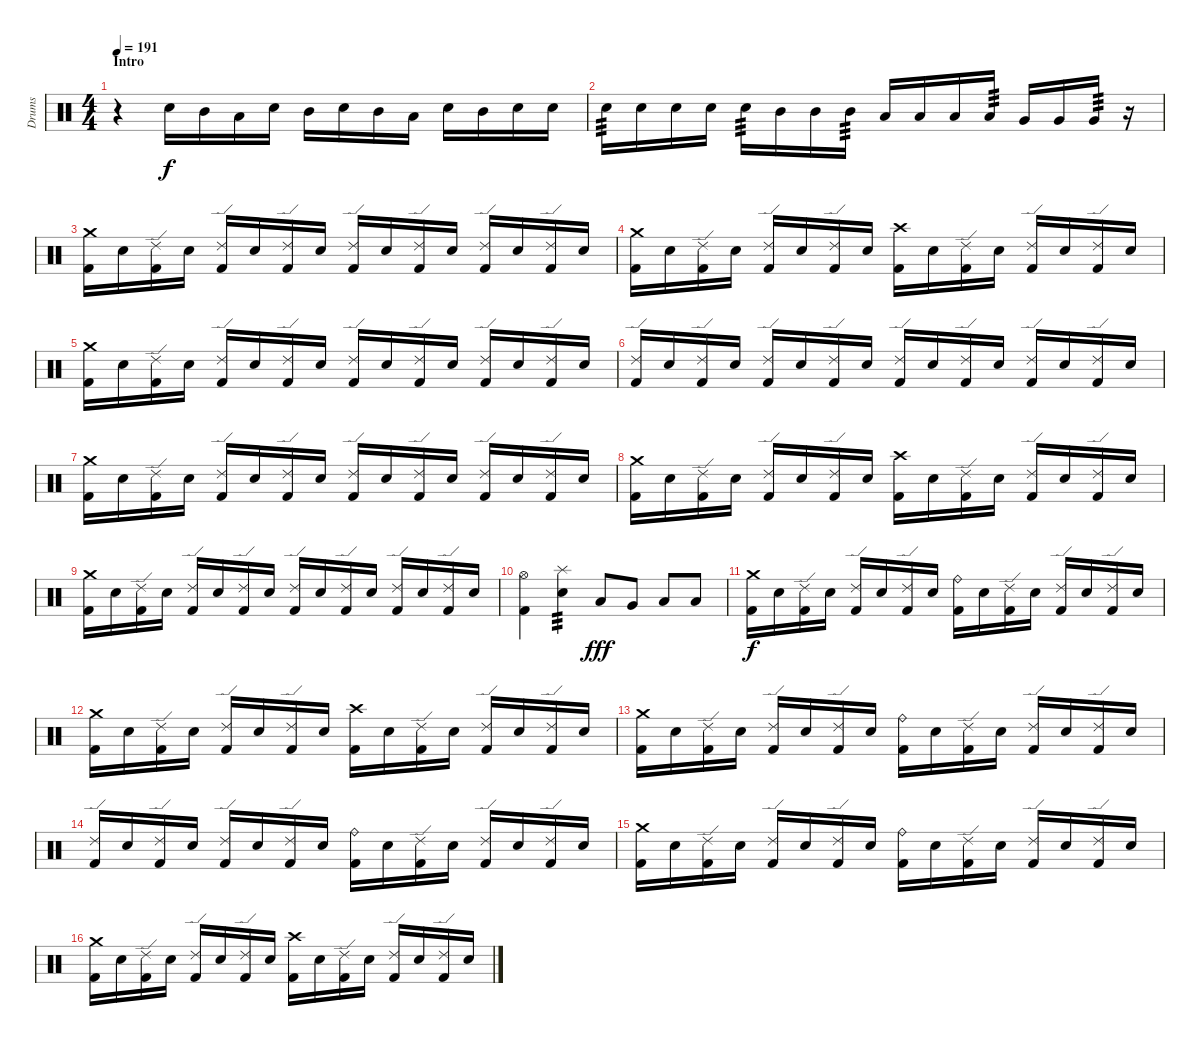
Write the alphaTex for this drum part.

\track ("Drums" "Drums") {instrument percussion}
\staff {score}
\articulation defaults
\ts (4 4)
\section ("" "Intro")
\tempo 191
\clef neutral
\ks c
r.4{dy f} "Electric Snare (hit)".16 "Mid Tom (hit)".16 "Low Tom (hit)".16 "Electric Snare (hit)".16 "Mid Tom (hit)".16 "Electric Snare (hit)".16 "Mid Tom (hit)".16 "Low Tom (hit)".16 "Electric Snare (hit)".16 "Mid Tom (hit)".16 "Electric Snare (hit)".16 "Electric Snare (hit)".16 |
"Electric Snare (hit)".16{tp 3} "Electric Snare (hit)".16 "Electric Snare (hit)".16 "Electric Snare (hit)".16 "Electric Snare (hit)".16{tp 3} "Mid Tom (hit)".16 "Mid Tom (hit)".16 "Mid Tom (hit)".16{tp 3} "Low Tom (hit)".16 "Low Tom (hit)".16 "Low Tom (hit)".16 "Low Tom (hit)".16{tp 3} "Very Low Tom (hit)".16 "Very Low Tom (hit)".16 "Very Low Tom (hit)".16{tp 3} r.16 |
("Crash medium (hit)" "Kick (hit) 2").16 "Electric Snare (hit)".16 ("Ride (edge) 2" "Kick (hit) 2").16 "Electric Snare (hit)".16 ("Ride (edge) 2" "Kick (hit) 2").16 "Electric Snare (hit)".16 ("Ride (edge) 2" "Kick (hit) 2").16 "Electric Snare (hit)".16 ("Ride (edge) 2" "Kick (hit) 2").16 "Electric Snare (hit)".16 ("Ride (edge) 2" "Kick (hit) 2").16 "Electric Snare (hit)".16 ("Ride (edge) 2" "Kick (hit) 2").16 "Electric Snare (hit)".16 ("Ride (edge) 2" "Kick (hit) 2").16 "Electric Snare (hit)".16 |
("Crash medium (hit)" "Kick (hit) 2").16 "Electric Snare (hit)".16 ("Ride (edge) 2" "Kick (hit) 2").16 "Electric Snare (hit)".16 ("Ride (edge) 2" "Kick (hit) 2").16 "Electric Snare (hit)".16 ("Ride (edge) 2" "Kick (hit) 2").16 "Electric Snare (hit)".16 ("Crash high (hit)" "Kick (hit) 2").16 "Electric Snare (hit)".16 ("Ride (edge) 2" "Kick (hit) 2").16 "Electric Snare (hit)".16 ("Ride (edge) 2" "Kick (hit) 2").16 "Electric Snare (hit)".16 ("Ride (edge) 2" "Kick (hit) 2").16 "Electric Snare (hit)".16 |
("Crash medium (hit)" "Kick (hit) 2").16 "Electric Snare (hit)".16 ("Ride (edge) 2" "Kick (hit) 2").16 "Electric Snare (hit)".16 ("Ride (edge) 2" "Kick (hit) 2").16 "Electric Snare (hit)".16 ("Ride (edge) 2" "Kick (hit) 2").16 "Electric Snare (hit)".16 ("Ride (edge) 2" "Kick (hit) 2").16 "Electric Snare (hit)".16 ("Ride (edge) 2" "Kick (hit) 2").16 "Electric Snare (hit)".16 ("Ride (edge) 2" "Kick (hit) 2").16 "Electric Snare (hit)".16 ("Ride (edge) 2" "Kick (hit) 2").16 "Electric Snare (hit)".16 |
("Ride (edge) 2" "Kick (hit) 2").16 "Electric Snare (hit)".16 ("Ride (edge) 2" "Kick (hit) 2").16 "Electric Snare (hit)".16 ("Ride (edge) 2" "Kick (hit) 2").16 "Electric Snare (hit)".16 ("Ride (edge) 2" "Kick (hit) 2").16 "Electric Snare (hit)".16 ("Ride (edge) 2" "Kick (hit) 2").16 "Electric Snare (hit)".16 ("Ride (edge) 2" "Kick (hit) 2").16 "Electric Snare (hit)".16 ("Ride (edge) 2" "Kick (hit) 2").16 "Electric Snare (hit)".16 ("Ride (edge) 2" "Kick (hit) 2").16 "Electric Snare (hit)".16 |
("Crash medium (hit)" "Kick (hit) 2").16 "Electric Snare (hit)".16 ("Ride (edge) 2" "Kick (hit) 2").16 "Electric Snare (hit)".16 ("Ride (edge) 2" "Kick (hit) 2").16 "Electric Snare (hit)".16 ("Ride (edge) 2" "Kick (hit) 2").16 "Electric Snare (hit)".16 ("Ride (edge) 2" "Kick (hit) 2").16 "Electric Snare (hit)".16 ("Ride (edge) 2" "Kick (hit) 2").16 "Electric Snare (hit)".16 ("Ride (edge) 2" "Kick (hit) 2").16 "Electric Snare (hit)".16 ("Ride (edge) 2" "Kick (hit) 2").16 "Electric Snare (hit)".16 |
("Crash medium (hit)" "Kick (hit) 2").16 "Electric Snare (hit)".16 ("Ride (edge) 2" "Kick (hit) 2").16 "Electric Snare (hit)".16 ("Ride (edge) 2" "Kick (hit) 2").16 "Electric Snare (hit)".16 ("Ride (edge) 2" "Kick (hit) 2").16 "Electric Snare (hit)".16 ("Crash high (hit)" "Kick (hit) 2").16 "Electric Snare (hit)".16 ("Ride (edge) 2" "Kick (hit) 2").16 "Electric Snare (hit)".16 ("Ride (edge) 2" "Kick (hit) 2").16 "Electric Snare (hit)".16 ("Ride (edge) 2" "Kick (hit) 2").16 "Electric Snare (hit)".16 |
("Crash medium (hit)" "Kick (hit) 2").16 "Electric Snare (hit)".16 ("Ride (edge) 2" "Kick (hit) 2").16 "Electric Snare (hit)".16 ("Ride (edge) 2" "Kick (hit) 2").16 "Electric Snare (hit)".16 ("Ride (edge) 2" "Kick (hit) 2").16 "Electric Snare (hit)".16 ("Ride (edge) 2" "Kick (hit) 2").16 "Electric Snare (hit)".16 ("Ride (edge) 2" "Kick (hit) 2").16 "Electric Snare (hit)".16 ("Ride (edge) 2" "Kick (hit) 2").16 "Electric Snare (hit)".16 ("Ride (edge) 2" "Kick (hit) 2").16 "Electric Snare (hit)".16 |
("Hi-Hat (open)" "Kick (hit) 2").4 ("Splash (hit)" "Electric Snare (hit)").4{tp 3} "Low Tom (hit)".8{dy fff} "Very Low Tom (hit)".8 "Low Floor Tom (hit)".8 "Low Floor Tom (hit)".8 |
("Crash medium (hit)" "Kick (hit) 2").16{dy f} "Electric Snare (hit)".16 ("Ride (edge) 2" "Kick (hit) 2").16 "Electric Snare (hit)".16 ("Ride (edge) 2" "Kick (hit) 2").16 "Electric Snare (hit)".16 ("Ride (edge) 2" "Kick (hit) 2").16 "Electric Snare (hit)".16 ("Ride (bell)" "Kick (hit) 2").16 "Electric Snare (hit)".16 ("Ride (edge) 2" "Kick (hit) 2").16 "Electric Snare (hit)".16 ("Ride (edge) 2" "Kick (hit) 2").16 "Electric Snare (hit)".16 ("Ride (edge) 2" "Kick (hit) 2").16 "Electric Snare (hit)".16 |
("Crash medium (hit)" "Kick (hit) 2").16 "Electric Snare (hit)".16 ("Ride (edge) 2" "Kick (hit) 2").16 "Electric Snare (hit)".16 ("Ride (edge) 2" "Kick (hit) 2").16 "Electric Snare (hit)".16 ("Ride (edge) 2" "Kick (hit) 2").16 "Electric Snare (hit)".16 ("Crash high (hit)" "Kick (hit) 2").16 "Electric Snare (hit)".16 ("Ride (edge) 2" "Kick (hit) 2").16 "Electric Snare (hit)".16 ("Ride (edge) 2" "Kick (hit) 2").16 "Electric Snare (hit)".16 ("Ride (edge) 2" "Kick (hit) 2").16 "Electric Snare (hit)".16 |
("Crash medium (hit)" "Kick (hit) 2").16 "Electric Snare (hit)".16 ("Ride (edge) 2" "Kick (hit) 2").16 "Electric Snare (hit)".16 ("Ride (edge) 2" "Kick (hit) 2").16 "Electric Snare (hit)".16 ("Ride (edge) 2" "Kick (hit) 2").16 "Electric Snare (hit)".16 ("Ride (bell)" "Kick (hit) 2").16 "Electric Snare (hit)".16 ("Ride (edge) 2" "Kick (hit) 2").16 "Electric Snare (hit)".16 ("Ride (edge) 2" "Kick (hit) 2").16 "Electric Snare (hit)".16 ("Ride (edge) 2" "Kick (hit) 2").16 "Electric Snare (hit)".16 |
("Ride (edge) 2" "Kick (hit) 2").16 "Electric Snare (hit)".16 ("Ride (edge) 2" "Kick (hit) 2").16 "Electric Snare (hit)".16 ("Ride (edge) 2" "Kick (hit) 2").16 "Electric Snare (hit)".16 ("Ride (edge) 2" "Kick (hit) 2").16 "Electric Snare (hit)".16 ("Ride (bell)" "Kick (hit) 2").16 "Electric Snare (hit)".16 ("Ride (edge) 2" "Kick (hit) 2").16 "Electric Snare (hit)".16 ("Ride (edge) 2" "Kick (hit) 2").16 "Electric Snare (hit)".16 ("Ride (edge) 2" "Kick (hit) 2").16 "Electric Snare (hit)".16 |
("Crash medium (hit)" "Kick (hit) 2").16 "Electric Snare (hit)".16 ("Ride (edge) 2" "Kick (hit) 2").16 "Electric Snare (hit)".16 ("Ride (edge) 2" "Kick (hit) 2").16 "Electric Snare (hit)".16 ("Ride (edge) 2" "Kick (hit) 2").16 "Electric Snare (hit)".16 ("Ride (bell)" "Kick (hit) 2").16 "Electric Snare (hit)".16 ("Ride (edge) 2" "Kick (hit) 2").16 "Electric Snare (hit)".16 ("Ride (edge) 2" "Kick (hit) 2").16 "Electric Snare (hit)".16 ("Ride (edge) 2" "Kick (hit) 2").16 "Electric Snare (hit)".16 |
("Crash medium (hit)" "Kick (hit) 2").16 "Electric Snare (hit)".16 ("Ride (edge) 2" "Kick (hit) 2").16 "Electric Snare (hit)".16 ("Ride (edge) 2" "Kick (hit) 2").16 "Electric Snare (hit)".16 ("Ride (edge) 2" "Kick (hit) 2").16 "Electric Snare (hit)".16 ("Crash high (hit)" "Kick (hit) 2").16 "Electric Snare (hit)".16 ("Ride (edge) 2" "Kick (hit) 2").16 "Electric Snare (hit)".16 ("Ride (edge) 2" "Kick (hit) 2").16 "Electric Snare (hit)".16 ("Ride (edge) 2" "Kick (hit) 2").16 "Electric Snare (hit)".16
